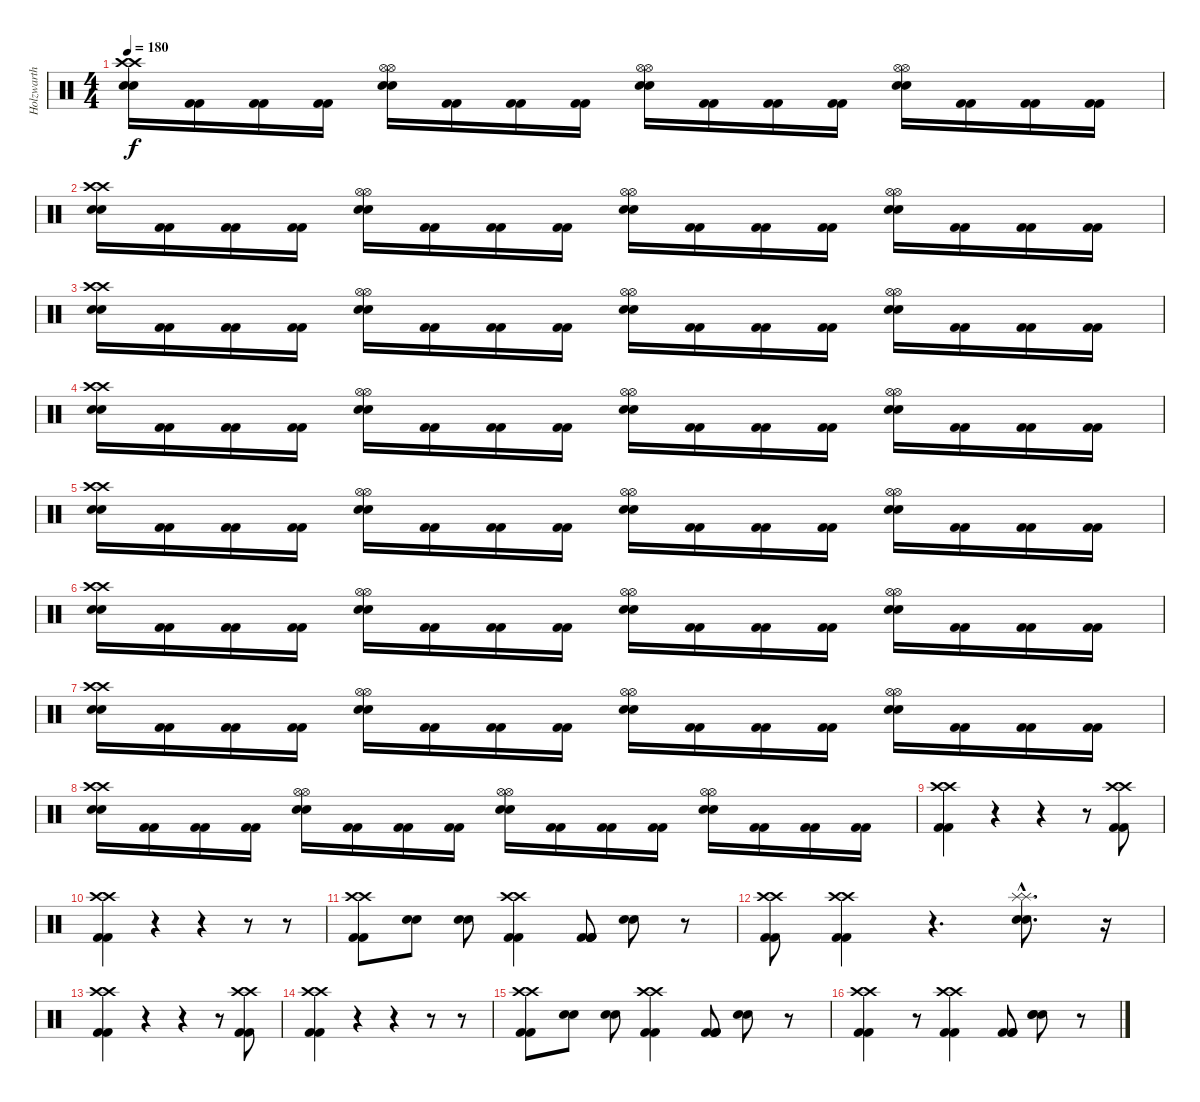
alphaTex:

\track ("Holzwarth" "Holzwarth") {instrument percussion}
\staff {score}
\articulation defaults
\ts (4 4)
\tempo 180
\clef neutral
\ks c
("Snare (hit) 2" "Snare (hit) 2" "Crash high (hit)" "Crash high (hit)").16{dy f} ("Kick (hit) 2" "Kick (hit) 2").16 ("Kick (hit) 2" "Kick (hit) 2").16 ("Kick (hit) 2" "Kick (hit) 2").16 ("Snare (hit) 2" "Snare (hit) 2" "Hi-Hat (open)" "Hi-Hat (open)").16 ("Kick (hit) 2" "Kick (hit) 2").16 ("Kick (hit) 2" "Kick (hit) 2").16 ("Kick (hit) 2" "Kick (hit) 2").16 ("Snare (hit) 2" "Snare (hit) 2" "Hi-Hat (open)" "Hi-Hat (open)").16 ("Kick (hit) 2" "Kick (hit) 2").16 ("Kick (hit) 2" "Kick (hit) 2").16 ("Kick (hit) 2" "Kick (hit) 2").16 ("Snare (hit) 2" "Snare (hit) 2" "Hi-Hat (open)" "Hi-Hat (open)").16 ("Kick (hit) 2" "Kick (hit) 2").16 ("Kick (hit) 2" "Kick (hit) 2").16 ("Kick (hit) 2" "Kick (hit) 2").16 |
("Snare (hit) 2" "Snare (hit) 2" "Crash high (hit)" "Crash high (hit)").16 ("Kick (hit) 2" "Kick (hit) 2").16 ("Kick (hit) 2" "Kick (hit) 2").16 ("Kick (hit) 2" "Kick (hit) 2").16 ("Snare (hit) 2" "Snare (hit) 2" "Hi-Hat (open)" "Hi-Hat (open)").16 ("Kick (hit) 2" "Kick (hit) 2").16 ("Kick (hit) 2" "Kick (hit) 2").16 ("Kick (hit) 2" "Kick (hit) 2").16 ("Snare (hit) 2" "Snare (hit) 2" "Hi-Hat (open)" "Hi-Hat (open)").16 ("Kick (hit) 2" "Kick (hit) 2").16 ("Kick (hit) 2" "Kick (hit) 2").16 ("Kick (hit) 2" "Kick (hit) 2").16 ("Snare (hit) 2" "Snare (hit) 2" "Hi-Hat (open)" "Hi-Hat (open)").16 ("Kick (hit) 2" "Kick (hit) 2").16 ("Kick (hit) 2" "Kick (hit) 2").16 ("Kick (hit) 2" "Kick (hit) 2").16 |
("Snare (hit) 2" "Snare (hit) 2" "Crash high (hit)" "Crash high (hit)").16 ("Kick (hit) 2" "Kick (hit) 2").16 ("Kick (hit) 2" "Kick (hit) 2").16 ("Kick (hit) 2" "Kick (hit) 2").16 ("Snare (hit) 2" "Snare (hit) 2" "Hi-Hat (open)" "Hi-Hat (open)").16 ("Kick (hit) 2" "Kick (hit) 2").16 ("Kick (hit) 2" "Kick (hit) 2").16 ("Kick (hit) 2" "Kick (hit) 2").16 ("Snare (hit) 2" "Snare (hit) 2" "Hi-Hat (open)" "Hi-Hat (open)").16 ("Kick (hit) 2" "Kick (hit) 2").16 ("Kick (hit) 2" "Kick (hit) 2").16 ("Kick (hit) 2" "Kick (hit) 2").16 ("Snare (hit) 2" "Snare (hit) 2" "Hi-Hat (open)" "Hi-Hat (open)").16 ("Kick (hit) 2" "Kick (hit) 2").16 ("Kick (hit) 2" "Kick (hit) 2").16 ("Kick (hit) 2" "Kick (hit) 2").16 |
("Snare (hit) 2" "Snare (hit) 2" "Crash high (hit)" "Crash high (hit)").16 ("Kick (hit) 2" "Kick (hit) 2").16 ("Kick (hit) 2" "Kick (hit) 2").16 ("Kick (hit) 2" "Kick (hit) 2").16 ("Snare (hit) 2" "Snare (hit) 2" "Hi-Hat (open)" "Hi-Hat (open)").16 ("Kick (hit) 2" "Kick (hit) 2").16 ("Kick (hit) 2" "Kick (hit) 2").16 ("Kick (hit) 2" "Kick (hit) 2").16 ("Snare (hit) 2" "Snare (hit) 2" "Hi-Hat (open)" "Hi-Hat (open)").16 ("Kick (hit) 2" "Kick (hit) 2").16 ("Kick (hit) 2" "Kick (hit) 2").16 ("Kick (hit) 2" "Kick (hit) 2").16 ("Snare (hit) 2" "Snare (hit) 2" "Hi-Hat (open)" "Hi-Hat (open)").16 ("Kick (hit) 2" "Kick (hit) 2").16 ("Kick (hit) 2" "Kick (hit) 2").16 ("Kick (hit) 2" "Kick (hit) 2").16 |
("Snare (hit) 2" "Snare (hit) 2" "Crash high (hit)" "Crash high (hit)").16 ("Kick (hit) 2" "Kick (hit) 2").16 ("Kick (hit) 2" "Kick (hit) 2").16 ("Kick (hit) 2" "Kick (hit) 2").16 ("Snare (hit) 2" "Snare (hit) 2" "Hi-Hat (open)" "Hi-Hat (open)").16 ("Kick (hit) 2" "Kick (hit) 2").16 ("Kick (hit) 2" "Kick (hit) 2").16 ("Kick (hit) 2" "Kick (hit) 2").16 ("Snare (hit) 2" "Snare (hit) 2" "Hi-Hat (open)" "Hi-Hat (open)").16 ("Kick (hit) 2" "Kick (hit) 2").16 ("Kick (hit) 2" "Kick (hit) 2").16 ("Kick (hit) 2" "Kick (hit) 2").16 ("Snare (hit) 2" "Snare (hit) 2" "Hi-Hat (open)" "Hi-Hat (open)").16 ("Kick (hit) 2" "Kick (hit) 2").16 ("Kick (hit) 2" "Kick (hit) 2").16 ("Kick (hit) 2" "Kick (hit) 2").16 |
("Snare (hit) 2" "Snare (hit) 2" "Crash high (hit)" "Crash high (hit)").16 ("Kick (hit) 2" "Kick (hit) 2").16 ("Kick (hit) 2" "Kick (hit) 2").16 ("Kick (hit) 2" "Kick (hit) 2").16 ("Snare (hit) 2" "Snare (hit) 2" "Hi-Hat (open)" "Hi-Hat (open)").16 ("Kick (hit) 2" "Kick (hit) 2").16 ("Kick (hit) 2" "Kick (hit) 2").16 ("Kick (hit) 2" "Kick (hit) 2").16 ("Snare (hit) 2" "Snare (hit) 2" "Hi-Hat (open)" "Hi-Hat (open)").16 ("Kick (hit) 2" "Kick (hit) 2").16 ("Kick (hit) 2" "Kick (hit) 2").16 ("Kick (hit) 2" "Kick (hit) 2").16 ("Snare (hit) 2" "Snare (hit) 2" "Hi-Hat (open)" "Hi-Hat (open)").16 ("Kick (hit) 2" "Kick (hit) 2").16 ("Kick (hit) 2" "Kick (hit) 2").16 ("Kick (hit) 2" "Kick (hit) 2").16 |
("Snare (hit) 2" "Snare (hit) 2" "Crash high (hit)" "Crash high (hit)").16 ("Kick (hit) 2" "Kick (hit) 2").16 ("Kick (hit) 2" "Kick (hit) 2").16 ("Kick (hit) 2" "Kick (hit) 2").16 ("Snare (hit) 2" "Snare (hit) 2" "Hi-Hat (open)" "Hi-Hat (open)").16 ("Kick (hit) 2" "Kick (hit) 2").16 ("Kick (hit) 2" "Kick (hit) 2").16 ("Kick (hit) 2" "Kick (hit) 2").16 ("Snare (hit) 2" "Snare (hit) 2" "Hi-Hat (open)" "Hi-Hat (open)").16 ("Kick (hit) 2" "Kick (hit) 2").16 ("Kick (hit) 2" "Kick (hit) 2").16 ("Kick (hit) 2" "Kick (hit) 2").16 ("Snare (hit) 2" "Snare (hit) 2" "Hi-Hat (open)" "Hi-Hat (open)").16 ("Kick (hit) 2" "Kick (hit) 2").16 ("Kick (hit) 2" "Kick (hit) 2").16 ("Kick (hit) 2" "Kick (hit) 2").16 |
("Snare (hit) 2" "Snare (hit) 2" "Crash high (hit)" "Crash high (hit)").16 ("Kick (hit) 2" "Kick (hit) 2").16 ("Kick (hit) 2" "Kick (hit) 2").16 ("Kick (hit) 2" "Kick (hit) 2").16 ("Snare (hit) 2" "Snare (hit) 2" "Hi-Hat (open)" "Hi-Hat (open)").16 ("Kick (hit) 2" "Kick (hit) 2").16 ("Kick (hit) 2" "Kick (hit) 2").16 ("Kick (hit) 2" "Kick (hit) 2").16 ("Snare (hit) 2" "Snare (hit) 2" "Hi-Hat (open)" "Hi-Hat (open)").16 ("Kick (hit) 2" "Kick (hit) 2").16 ("Kick (hit) 2" "Kick (hit) 2").16 ("Kick (hit) 2" "Kick (hit) 2").16 ("Snare (hit) 2" "Snare (hit) 2" "Hi-Hat (open)" "Hi-Hat (open)").16 ("Kick (hit) 2" "Kick (hit) 2").16 ("Kick (hit) 2" "Kick (hit) 2").16 ("Kick (hit) 2" "Kick (hit) 2").16 |
("Kick (hit) 2" "Kick (hit) 2" "Crash high (hit)" "Crash high (hit)").4 r.4 r.4 r.8 ("Kick (hit) 2" "Kick (hit) 2" "Crash high (hit)" "Crash high (hit)").8 |
("Kick (hit) 2" "Kick (hit) 2" "Crash high (hit)" "Crash high (hit)").4 r.4 r.4 r.8 r.8 |
("Kick (hit) 2" "Kick (hit) 2" "Crash high (hit)" "Crash high (hit)").8 ("Snare (hit) 2" "Snare (hit) 2").8 ("Snare (hit) 2" "Snare (hit) 2").8 ("Kick (hit) 2" "Kick (hit) 2" "Crash high (hit)" "Crash high (hit)").4 ("Kick (hit) 2" "Kick (hit) 2" "Kick (hit) 2" "Kick (hit) 2").8 ("Snare (hit) 2" "Snare (hit) 2").8 r.8 |
("Kick (hit) 2" "Kick (hit) 2" "Crash high (hit)" "Crash high (hit)").8 ("Kick (hit) 2" "Kick (hit) 2" "Crash high (hit)" "Crash high (hit)").4 r.4{d} ("Snare (hit) 2"{hac} "Snare (hit) 2"{hac} "Splash (hit)"{hac} "Splash (hit)"{hac}).8{d} r.16 |
("Kick (hit) 2" "Kick (hit) 2" "Crash high (hit)" "Crash high (hit)").4 r.4 r.4 r.8 ("Kick (hit) 2" "Kick (hit) 2" "Crash high (hit)" "Crash high (hit)").8 |
("Kick (hit) 2" "Kick (hit) 2" "Crash high (hit)" "Crash high (hit)").4 r.4 r.4 r.8 r.8 |
("Kick (hit) 2" "Kick (hit) 2" "Crash high (hit)" "Crash high (hit)").8 ("Snare (hit) 2" "Snare (hit) 2").8 ("Snare (hit) 2" "Snare (hit) 2").8 ("Kick (hit) 2" "Kick (hit) 2" "Crash high (hit)" "Crash high (hit)").4 ("Kick (hit) 2" "Kick (hit) 2" "Kick (hit) 2" "Kick (hit) 2").8 ("Snare (hit) 2" "Snare (hit) 2").8 r.8 |
("Kick (hit) 2" "Kick (hit) 2" "Crash high (hit)" "Crash high (hit)").4 r.8 ("Kick (hit) 2" "Kick (hit) 2" "Crash high (hit)" "Crash high (hit)").4 ("Kick (hit) 2" "Kick (hit) 2" "Kick (hit) 2").8 ("Snare (hit) 2" "Snare (hit) 2" "Snare (hit) 2").8 r.8
